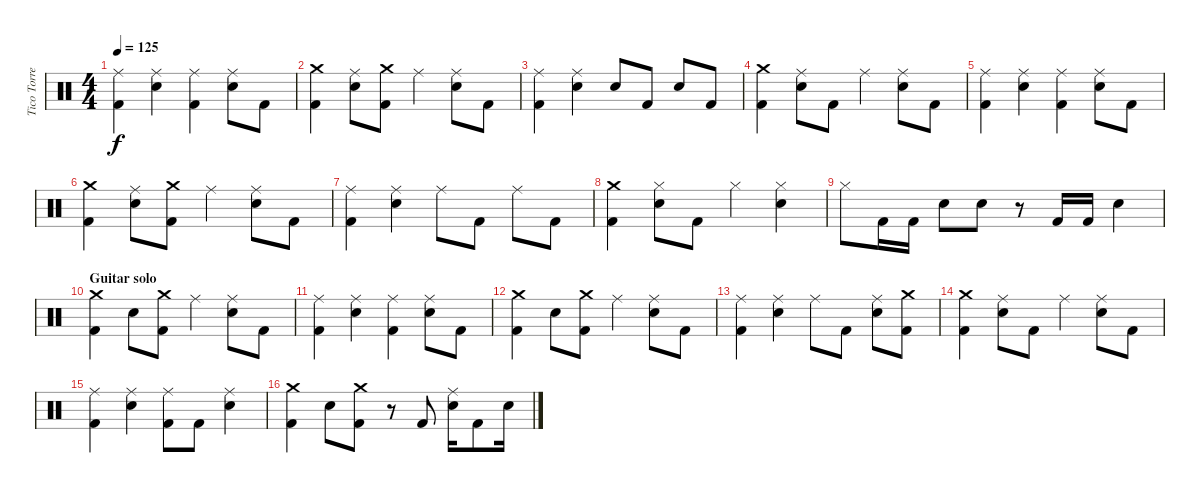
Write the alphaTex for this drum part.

\track ("Tico Torres" "Tico Torre") {instrument percussion}
\staff {score}
\articulation defaults
\ts (4 4)
\tempo 125
\clef neutral
\ks c
("Ride (middle)" "Kick (hit) 2").4{dy f} ("Ride (middle)" "Snare (hit) 2").4 ("Ride (middle)" "Kick (hit) 2").4 ("Ride (middle)" "Snare (hit) 2").8 "Kick (hit) 2".8 |
("Crash medium (hit)" "Kick (hit) 2").4 ("Ride (middle)" "Snare (hit) 2").8 ("Crash medium (hit)" "Kick (hit) 2").8 "Ride (middle)".4 ("Ride (middle)" "Snare (hit) 2").8 "Kick (hit) 2".8 |
("Ride (middle)" "Kick (hit) 2").4 ("Ride (middle)" "Snare (hit) 2").4 "Snare (hit) 2".8 "Kick (hit) 2".8 "Snare (hit) 2".8 "Kick (hit) 2".8 |
("Crash medium (hit)" "Kick (hit) 2").4 ("Ride (middle)" "Snare (hit) 2").8 "Kick (hit) 2".8 "Ride (middle)".4 ("Ride (middle)" "Snare (hit) 2").8 "Kick (hit) 2".8 |
("Ride (middle)" "Kick (hit) 2").4 ("Ride (middle)" "Snare (hit) 2").4 ("Ride (middle)" "Kick (hit) 2").4 ("Ride (middle)" "Snare (hit) 2").8 "Kick (hit) 2".8 |
("Crash medium (hit)" "Kick (hit) 2").4 ("Ride (middle)" "Snare (hit) 2").8 ("Crash medium (hit)" "Kick (hit) 2").8 "Ride (middle)".4 ("Ride (middle)" "Snare (hit) 2").8 "Kick (hit) 2".8 |
("Ride (middle)" "Kick (hit) 2").4 ("Ride (middle)" "Snare (hit) 2").4 "Ride (middle)".8 "Kick (hit) 2".8 "Ride (middle)".8 "Kick (hit) 2".8 |
("Crash medium (hit)" "Kick (hit) 2").4 ("Hi-Hat (closed)" "Snare (hit) 2").8 "Kick (hit) 2".8 "Hi-Hat (closed)".4 ("Hi-Hat (closed)" "Snare (hit) 2").4 |
"Hi-Hat (closed)".8 "Kick (hit) 2".16 "Kick (hit) 2".16 "Snare (hit) 2".8 "Snare (hit) 2".8 r.8 "Kick (hit) 2".16 "Kick (hit) 2".16 "Snare (hit) 2".4 |
\section ("" "Guitar solo")
("Crash medium (hit)" "Kick (hit) 2").4 "Snare (hit) 2".8 ("Crash medium (hit)" "Kick (hit) 2").8 "Ride (middle)".4 ("Ride (middle)" "Snare (hit) 2").8 "Kick (hit) 2".8 |
("Ride (middle)" "Kick (hit) 2").4 ("Ride (middle)" "Snare (hit) 2").4 ("Ride (middle)" "Kick (hit) 2").4 ("Ride (middle)" "Snare (hit) 2").8 "Kick (hit) 2".8 |
("Crash medium (hit)" "Kick (hit) 2").4 "Snare (hit) 2".8 ("Crash medium (hit)" "Kick (hit) 2").8 "Ride (middle)".4 ("Ride (middle)" "Snare (hit) 2").8 "Kick (hit) 2".8 |
("Ride (middle)" "Kick (hit) 2").4 ("Ride (middle)" "Snare (hit) 2").4 "Ride (middle)".8 "Kick (hit) 2".8 ("Ride (middle)" "Snare (hit) 2").8 ("Crash medium (hit)" "Kick (hit) 2").8 |
("Crash medium (hit)" "Kick (hit) 2").4 ("Ride (middle)" "Snare (hit) 2").8 "Kick (hit) 2".8 "Ride (middle)".4 ("Ride (middle)" "Snare (hit) 2").8 "Kick (hit) 2".8 |
("Ride (middle)" "Kick (hit) 2").4 ("Ride (middle)" "Snare (hit) 2").4 ("Ride (middle)" "Kick (hit) 2").8 "Kick (hit) 2".8 ("Ride (middle)" "Snare (hit) 2").4 |
("Crash medium (hit)" "Kick (hit) 2").4 "Snare (hit) 2".8 ("Crash medium (hit)" "Kick (hit) 2").8 r.8 "Kick (hit) 2".8 ("Ride (middle)" "Snare (hit) 2").16 "Kick (hit) 2".8 "Snare (hit) 2".16
